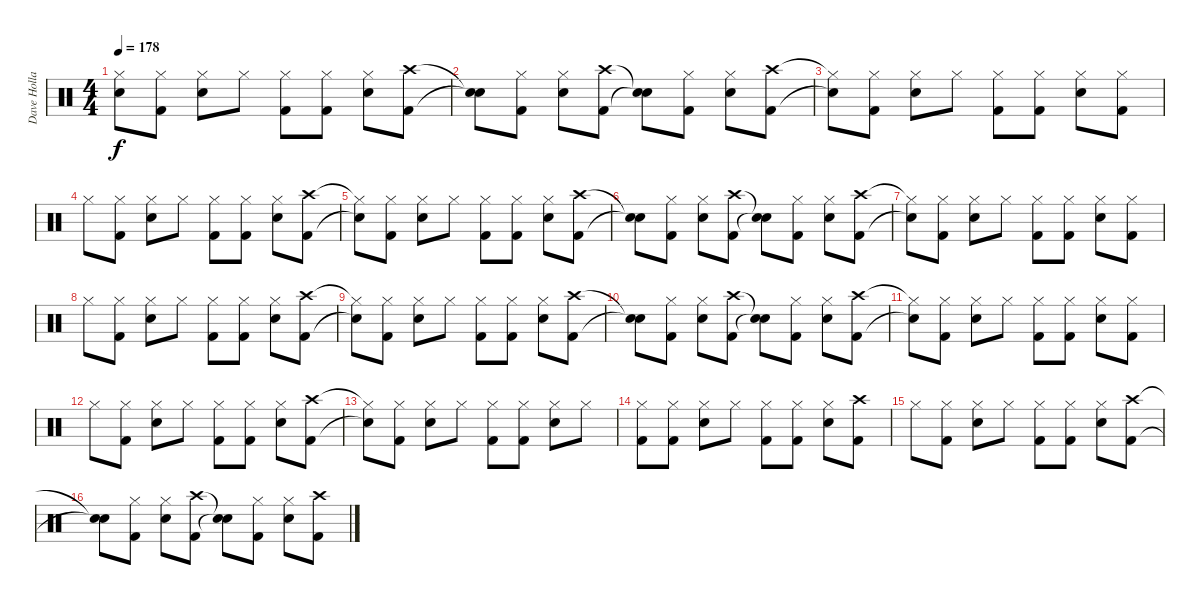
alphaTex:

\track ("Dave Holland" "Dave Holla") {instrument percussion}
\staff {score}
\articulation defaults
\ts (4 4)
\tempo 178
\clef neutral
\ks c
("Hi-Hat (closed)"{t} "Snare (hit)"{t}).8{dy f} ("Hi-Hat (closed)" "Kick (hit) 2").8 ("Hi-Hat (closed)" "Snare (hit) 2").8 "Hi-Hat (closed)".8 ("Hi-Hat (closed)" "Kick (hit) 2").8 ("Hi-Hat (closed)" "Kick (hit) 2").8 ("Hi-Hat (closed)" "Snare (hit) 2").8 ("Crash high (hit)" "Kick (hit) 2").8 |
("Snare (hit)"{t} "Snare (hit)"{t}).8 ("Hi-Hat (closed)" "Kick (hit) 2").8 ("Hi-Hat (closed)" "Snare (hit) 2").8 ("Crash high (hit)" "Kick (hit) 2").8 ("Snare (hit)"{t} "Snare (hit)"{t}).8 ("Hi-Hat (closed)" "Kick (hit) 2").8 ("Hi-Hat (closed)" "Snare (hit) 2").8 ("Crash high (hit)" "Kick (hit) 2").8 |
("Hi-Hat (closed)"{t} "Snare (hit)"{t}).8 ("Hi-Hat (closed)" "Kick (hit) 2").8 ("Hi-Hat (closed)" "Snare (hit) 2").8 "Hi-Hat (closed)".8 ("Hi-Hat (closed)" "Kick (hit) 2").8 ("Hi-Hat (closed)" "Kick (hit) 2").8 ("Hi-Hat (closed)" "Snare (hit) 2").8 ("Hi-Hat (closed)" "Kick (hit) 2").8 |
"Hi-Hat (closed)".8 ("Hi-Hat (closed)" "Kick (hit) 2").8 ("Hi-Hat (closed)" "Snare (hit) 2").8 "Hi-Hat (closed)".8 ("Hi-Hat (closed)" "Kick (hit) 2").8 ("Hi-Hat (closed)" "Kick (hit) 2").8 ("Hi-Hat (closed)" "Snare (hit) 2").8 ("Crash high (hit)" "Kick (hit) 2").8 |
("Hi-Hat (closed)"{t} "Snare (hit)"{t}).8 ("Hi-Hat (closed)" "Kick (hit) 2").8 ("Hi-Hat (closed)" "Snare (hit) 2").8 "Hi-Hat (closed)".8 ("Hi-Hat (closed)" "Kick (hit) 2").8 ("Hi-Hat (closed)" "Kick (hit) 2").8 ("Hi-Hat (closed)" "Snare (hit) 2").8 ("Crash high (hit)" "Kick (hit) 2").8 |
("Snare (hit)"{t} "Snare (hit)"{t}).8 ("Hi-Hat (closed)" "Kick (hit) 2").8 ("Hi-Hat (closed)" "Snare (hit) 2").8 ("Crash high (hit)" "Kick (hit) 2").8 ("Snare (hit)"{t} "Snare (hit)"{t}).8 ("Hi-Hat (closed)" "Kick (hit) 2").8 ("Hi-Hat (closed)" "Snare (hit) 2").8 ("Crash high (hit)" "Kick (hit) 2").8 |
("Hi-Hat (closed)"{t} "Snare (hit)"{t}).8 ("Hi-Hat (closed)" "Kick (hit) 2").8 ("Hi-Hat (closed)" "Snare (hit) 2").8 "Hi-Hat (closed)".8 ("Hi-Hat (closed)" "Kick (hit) 2").8 ("Hi-Hat (closed)" "Kick (hit) 2").8 ("Hi-Hat (closed)" "Snare (hit) 2").8 ("Hi-Hat (closed)" "Kick (hit) 2").8 |
"Hi-Hat (closed)".8 ("Hi-Hat (closed)" "Kick (hit) 2").8 ("Hi-Hat (closed)" "Snare (hit) 2").8 "Hi-Hat (closed)".8 ("Hi-Hat (closed)" "Kick (hit) 2").8 ("Hi-Hat (closed)" "Kick (hit) 2").8 ("Hi-Hat (closed)" "Snare (hit) 2").8 ("Crash high (hit)" "Kick (hit) 2").8 |
("Hi-Hat (closed)"{t} "Snare (hit)"{t}).8 ("Hi-Hat (closed)" "Kick (hit) 2").8 ("Hi-Hat (closed)" "Snare (hit) 2").8 "Hi-Hat (closed)".8 ("Hi-Hat (closed)" "Kick (hit) 2").8 ("Hi-Hat (closed)" "Kick (hit) 2").8 ("Hi-Hat (closed)" "Snare (hit) 2").8 ("Crash high (hit)" "Kick (hit) 2").8 |
("Snare (hit)"{t} "Snare (hit)"{t}).8 ("Hi-Hat (closed)" "Kick (hit) 2").8 ("Hi-Hat (closed)" "Snare (hit) 2").8 ("Crash high (hit)" "Kick (hit) 2").8 ("Snare (hit)"{t} "Snare (hit)"{t}).8 ("Hi-Hat (closed)" "Kick (hit) 2").8 ("Hi-Hat (closed)" "Snare (hit) 2").8 ("Crash high (hit)" "Kick (hit) 2").8 |
("Hi-Hat (closed)"{t} "Snare (hit)"{t}).8 ("Hi-Hat (closed)" "Kick (hit) 2").8 ("Hi-Hat (closed)" "Snare (hit) 2").8 "Hi-Hat (closed)".8 ("Hi-Hat (closed)" "Kick (hit) 2").8 ("Hi-Hat (closed)" "Kick (hit) 2").8 ("Hi-Hat (closed)" "Snare (hit) 2").8 ("Hi-Hat (closed)" "Kick (hit) 2").8 |
"Hi-Hat (closed)".8 ("Hi-Hat (closed)" "Kick (hit) 2").8 ("Hi-Hat (closed)" "Snare (hit) 2").8 "Hi-Hat (closed)".8 ("Hi-Hat (closed)" "Kick (hit) 2").8 ("Hi-Hat (closed)" "Kick (hit) 2").8 ("Hi-Hat (closed)" "Snare (hit) 2").8 ("Crash high (hit)" "Kick (hit) 2").8 |
("Hi-Hat (closed)"{t} "Snare (hit)"{t}).8 ("Hi-Hat (closed)" "Kick (hit) 2").8 ("Hi-Hat (closed)" "Snare (hit) 2").8 "Hi-Hat (closed)".8 ("Hi-Hat (closed)" "Kick (hit) 2").8 ("Hi-Hat (closed)" "Kick (hit) 2").8 ("Hi-Hat (closed)" "Snare (hit) 2").8 "Hi-Hat (closed)".8 |
("Hi-Hat (closed)" "Kick (hit) 2").8 ("Hi-Hat (closed)" "Kick (hit) 2").8 ("Hi-Hat (closed)" "Snare (hit) 2").8 "Hi-Hat (closed)".8 ("Hi-Hat (closed)" "Kick (hit) 2").8 ("Hi-Hat (closed)" "Kick (hit) 2").8 ("Hi-Hat (closed)" "Snare (hit) 2").8 ("Crash high (hit)" "Kick (hit) 2").8 |
"Hi-Hat (closed)".8 ("Hi-Hat (closed)" "Kick (hit) 2").8 ("Hi-Hat (closed)" "Snare (hit) 2").8 "Hi-Hat (closed)".8 ("Hi-Hat (closed)" "Kick (hit) 2").8 ("Hi-Hat (closed)" "Kick (hit) 2").8 ("Hi-Hat (closed)" "Snare (hit) 2").8 ("Crash high (hit)" "Kick (hit) 2").8 |
("Snare (hit)"{t} "Snare (hit)"{t}).8 ("Hi-Hat (closed)" "Kick (hit) 2").8 ("Hi-Hat (closed)" "Snare (hit) 2").8 ("Crash high (hit)" "Kick (hit) 2").8 ("Snare (hit)"{t} "Snare (hit)"{t}).8 ("Hi-Hat (closed)" "Kick (hit) 2").8 ("Hi-Hat (closed)" "Snare (hit) 2").8 ("Crash high (hit)" "Kick (hit) 2").8
